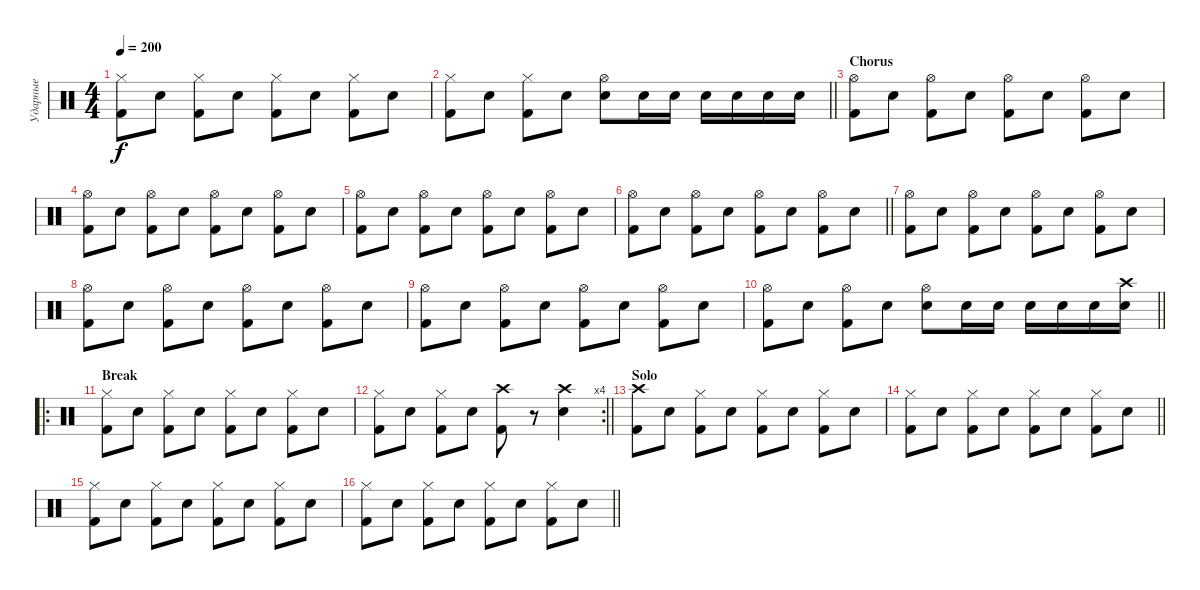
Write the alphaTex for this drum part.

\track ("Ударные" "Ударные") {instrument percussion}
\staff {score}
\articulation defaults
\ts (4 4)
\tempo 200
\clef neutral
\ks c
("Hi-Hat (closed)" "Kick (hit) 2").8{dy f} "Snare (hit) 2".8 ("Hi-Hat (closed)" "Kick (hit) 2").8 "Snare (hit) 2".8 ("Hi-Hat (closed)" "Kick (hit) 2").8 "Snare (hit) 2".8 ("Hi-Hat (closed)" "Kick (hit) 2").8 "Snare (hit) 2".8 |
\barLineRight lightlight
("Hi-Hat (closed)" "Kick (hit) 2").8 "Snare (hit) 2".8 ("Hi-Hat (closed)" "Kick (hit) 2").8 "Snare (hit) 2".8 ("Hi-Hat (open)" "Snare (hit) 2").8 "Snare (hit) 2".16 "Snare (hit) 2".16 "Snare (hit) 2".16 "Snare (hit) 2".16 "Snare (hit) 2".16 "Snare (hit) 2".16 |
\section ("" "Chorus")
("Hi-Hat (open)" "Kick (hit) 2").8 "Snare (hit) 2".8 ("Hi-Hat (open)" "Kick (hit) 2").8 "Snare (hit) 2".8 ("Hi-Hat (open)" "Kick (hit) 2").8 "Snare (hit) 2".8 ("Hi-Hat (open)" "Kick (hit) 2").8 "Snare (hit) 2".8 |
("Hi-Hat (open)" "Kick (hit) 2").8 "Snare (hit) 2".8 ("Hi-Hat (open)" "Kick (hit) 2").8 "Snare (hit) 2".8 ("Hi-Hat (open)" "Kick (hit) 2").8 "Snare (hit) 2".8 ("Hi-Hat (open)" "Kick (hit) 2").8 "Snare (hit) 2".8 |
("Hi-Hat (open)" "Kick (hit) 2").8 "Snare (hit) 2".8 ("Hi-Hat (open)" "Kick (hit) 2").8 "Snare (hit) 2".8 ("Hi-Hat (open)" "Kick (hit) 2").8 "Snare (hit) 2".8 ("Hi-Hat (open)" "Kick (hit) 2").8 "Snare (hit) 2".8 |
\barLineRight lightlight
("Hi-Hat (open)" "Kick (hit) 2").8 "Snare (hit) 2".8 ("Hi-Hat (open)" "Kick (hit) 2").8 "Snare (hit) 2".8 ("Hi-Hat (open)" "Kick (hit) 2").8 "Snare (hit) 2".8 ("Hi-Hat (open)" "Kick (hit) 2").8 "Snare (hit) 2".8 |
("Hi-Hat (open)" "Kick (hit) 2").8 "Snare (hit) 2".8 ("Hi-Hat (open)" "Kick (hit) 2").8 "Snare (hit) 2".8 ("Hi-Hat (open)" "Kick (hit) 2").8 "Snare (hit) 2".8 ("Hi-Hat (open)" "Kick (hit) 2").8 "Snare (hit) 2".8 |
("Hi-Hat (open)" "Kick (hit) 2").8 "Snare (hit) 2".8 ("Hi-Hat (open)" "Kick (hit) 2").8 "Snare (hit) 2".8 ("Hi-Hat (open)" "Kick (hit) 2").8 "Snare (hit) 2".8 ("Hi-Hat (open)" "Kick (hit) 2").8 "Snare (hit) 2".8 |
("Hi-Hat (open)" "Kick (hit) 2").8 "Snare (hit) 2".8 ("Hi-Hat (open)" "Kick (hit) 2").8 "Snare (hit) 2".8 ("Hi-Hat (open)" "Kick (hit) 2").8 "Snare (hit) 2".8 ("Hi-Hat (open)" "Kick (hit) 2").8 "Snare (hit) 2".8 |
\barLineRight lightlight
("Hi-Hat (open)" "Kick (hit) 2").8 "Snare (hit) 2".8 ("Hi-Hat (open)" "Kick (hit) 2").8 "Snare (hit) 2".8 ("Hi-Hat (open)" "Snare (hit) 2").8 "Snare (hit) 2".16 "Snare (hit) 2".16 "Snare (hit) 2".16 "Snare (hit) 2".16 "Snare (hit) 2".16 ("Crash high (hit)" "Snare (hit) 2").16 |
\ro
\section ("" "Break")
("Hi-Hat (closed)" "Kick (hit) 2").8 "Snare (hit) 2".8 ("Hi-Hat (closed)" "Kick (hit) 2").8 "Snare (hit) 2".8 ("Hi-Hat (closed)" "Kick (hit) 2").8 "Snare (hit) 2".8 ("Hi-Hat (closed)" "Kick (hit) 2").8 "Snare (hit) 2".8 |
\rc 4
\barLineRight lightlight
("Hi-Hat (closed)" "Kick (hit) 2").8 "Snare (hit) 2".8 ("Hi-Hat (closed)" "Kick (hit) 2").8 "Snare (hit) 2".8 ("Crash high (hit)" "Kick (hit) 2").8 r.8 ("Crash high (hit)" "Snare (hit) 2").4 |
\section ("" "Solo")
("Crash high (hit)" "Kick (hit) 2").8 "Snare (hit) 2".8 ("Hi-Hat (closed)" "Kick (hit) 2").8 "Snare (hit) 2".8 ("Hi-Hat (closed)" "Kick (hit) 2").8 "Snare (hit) 2".8 ("Hi-Hat (closed)" "Kick (hit) 2").8 "Snare (hit) 2".8 |
\barLineRight lightlight
("Hi-Hat (closed)" "Kick (hit) 2").8 "Snare (hit) 2".8 ("Hi-Hat (closed)" "Kick (hit) 2").8 "Snare (hit) 2".8 ("Hi-Hat (closed)" "Kick (hit) 2").8 "Snare (hit) 2".8 ("Hi-Hat (closed)" "Kick (hit) 2").8 "Snare (hit) 2".8 |
("Hi-Hat (closed)" "Kick (hit) 2").8 "Snare (hit) 2".8 ("Hi-Hat (closed)" "Kick (hit) 2").8 "Snare (hit) 2".8 ("Hi-Hat (closed)" "Kick (hit) 2").8 "Snare (hit) 2".8 ("Hi-Hat (closed)" "Kick (hit) 2").8 "Snare (hit) 2".8 |
\barLineRight lightlight
("Hi-Hat (closed)" "Kick (hit) 2").8 "Snare (hit) 2".8 ("Hi-Hat (closed)" "Kick (hit) 2").8 "Snare (hit) 2".8 ("Hi-Hat (closed)" "Kick (hit) 2").8 "Snare (hit) 2".8 ("Hi-Hat (closed)" "Kick (hit) 2").8 "Snare (hit) 2".8
